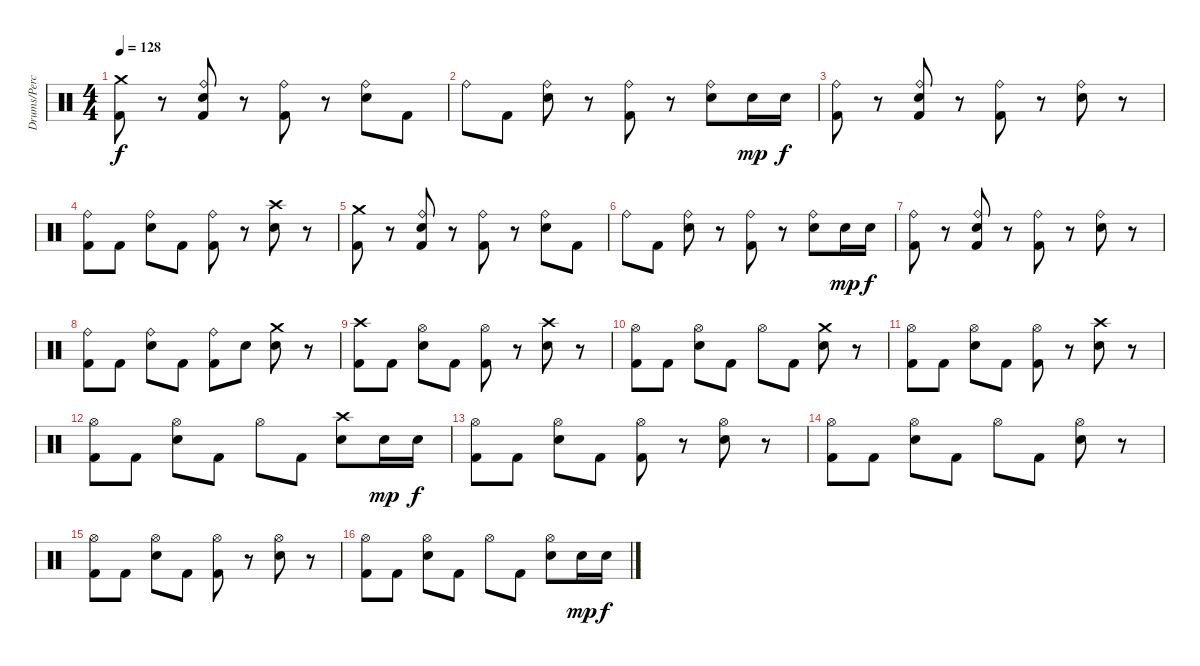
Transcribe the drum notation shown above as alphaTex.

\track ("Drums/Percussion" "Drums/Perc") {instrument percussion}
\staff {score}
\articulation defaults
\ts (4 4)
\tempo 128
\clef neutral
\ks c
("Crash medium (hit)" "Kick (hit) 2").8{dy f} r.8 ("Ride (bell)" "Electric Snare (hit)" "Kick (hit) 2").8 r.8 ("Ride (bell)" "Kick (hit) 2").8 r.8 ("Ride (bell)" "Electric Snare (hit)").8 "Kick (hit) 2".8 |
"Ride (bell)".8 "Kick (hit) 2".8 ("Ride (bell)" "Electric Snare (hit)").8 r.8 ("Ride (bell)" "Kick (hit) 2").8 r.8 ("Ride (bell)" "Electric Snare (hit)").8 "Electric Snare (hit)".16{dy mp} "Electric Snare (hit)".16{dy f} |
("Ride (bell)" "Kick (hit) 2").8 r.8 ("Ride (bell)" "Electric Snare (hit)" "Kick (hit) 2").8 r.8 ("Ride (bell)" "Kick (hit) 2").8 r.8 ("Ride (bell)" "Electric Snare (hit)").8 r.8 |
("Ride (bell)" "Kick (hit) 2").8 "Kick (hit) 2".8 ("Ride (bell)" "Electric Snare (hit)").8 "Kick (hit) 2".8 ("Ride (bell)" "Kick (hit) 2").8 r.8 ("Crash high (hit)" "Electric Snare (hit)").8 r.8 |
("Crash medium (hit)" "Kick (hit) 2").8 r.8 ("Ride (bell)" "Electric Snare (hit)" "Kick (hit) 2").8 r.8 ("Ride (bell)" "Kick (hit) 2").8 r.8 ("Ride (bell)" "Electric Snare (hit)").8 "Kick (hit) 2".8 |
"Ride (bell)".8 "Kick (hit) 2".8 ("Ride (bell)" "Electric Snare (hit)").8 r.8 ("Ride (bell)" "Kick (hit) 2").8 r.8 ("Ride (bell)" "Electric Snare (hit)").8 "Electric Snare (hit)".16{dy mp} "Electric Snare (hit)".16{dy f} |
("Ride (bell)" "Kick (hit) 2").8 r.8 ("Ride (bell)" "Electric Snare (hit)" "Kick (hit) 2").8 r.8 ("Ride (bell)" "Kick (hit) 2").8 r.8 ("Ride (bell)" "Electric Snare (hit)").8 r.8 |
("Ride (bell)" "Kick (hit) 2").8 "Kick (hit) 2".8 ("Ride (bell)" "Electric Snare (hit)").8 "Kick (hit) 2".8 ("Ride (bell)" "Kick (hit) 2").8 "Electric Snare (hit)".8 ("Crash medium (hit)" "Electric Snare (hit)").8 r.8 |
("Crash high (hit)" "Kick (hit) 2").8 "Kick (hit) 2".8 ("Hi-Hat (open)" "Electric Snare (hit)").8 "Kick (hit) 2".8 ("Hi-Hat (open)" "Kick (hit) 2").8 r.8 ("Crash high (hit)" "Electric Snare (hit)").8 r.8 |
("Hi-Hat (open)" "Kick (hit) 2").8 "Kick (hit) 2".8 ("Hi-Hat (open)" "Electric Snare (hit)").8 "Kick (hit) 2".8 "Hi-Hat (open)".8 "Kick (hit) 2".8 ("Crash medium (hit)" "Electric Snare (hit)").8 r.8 |
("Hi-Hat (open)" "Kick (hit) 2").8 "Kick (hit) 2".8 ("Hi-Hat (open)" "Electric Snare (hit)").8 "Kick (hit) 2".8 ("Hi-Hat (open)" "Kick (hit) 2").8 r.8 ("Crash high (hit)" "Electric Snare (hit)").8 r.8 |
("Hi-Hat (open)" "Kick (hit) 2").8 "Kick (hit) 2".8 ("Hi-Hat (open)" "Electric Snare (hit)").8 "Kick (hit) 2".8 "Hi-Hat (open)".8 "Kick (hit) 2".8 ("Crash high (hit)" "Electric Snare (hit)").8 "Electric Snare (hit)".16{dy mp} "Electric Snare (hit)".16{dy f} |
("Hi-Hat (open)" "Kick (hit) 2").8 "Kick (hit) 2".8 ("Hi-Hat (open)" "Electric Snare (hit)").8 "Kick (hit) 2".8 ("Hi-Hat (open)" "Kick (hit) 2").8 r.8 ("Hi-Hat (open)" "Electric Snare (hit)").8 r.8 |
("Hi-Hat (open)" "Kick (hit) 2").8 "Kick (hit) 2".8 ("Hi-Hat (open)" "Electric Snare (hit)").8 "Kick (hit) 2".8 "Hi-Hat (open)".8 "Kick (hit) 2".8 ("Hi-Hat (open)" "Electric Snare (hit)").8 r.8 |
("Hi-Hat (open)" "Kick (hit) 2").8 "Kick (hit) 2".8 ("Hi-Hat (open)" "Electric Snare (hit)").8 "Kick (hit) 2".8 ("Hi-Hat (open)" "Kick (hit) 2").8 r.8 ("Hi-Hat (open)" "Electric Snare (hit)").8 r.8 |
("Hi-Hat (open)" "Kick (hit) 2").8 "Kick (hit) 2".8 ("Hi-Hat (open)" "Electric Snare (hit)").8 "Kick (hit) 2".8 "Hi-Hat (open)".8 "Kick (hit) 2".8 ("Hi-Hat (open)" "Electric Snare (hit)").8 "Electric Snare (hit)".16{dy mp} "Electric Snare (hit)".16{dy f}
